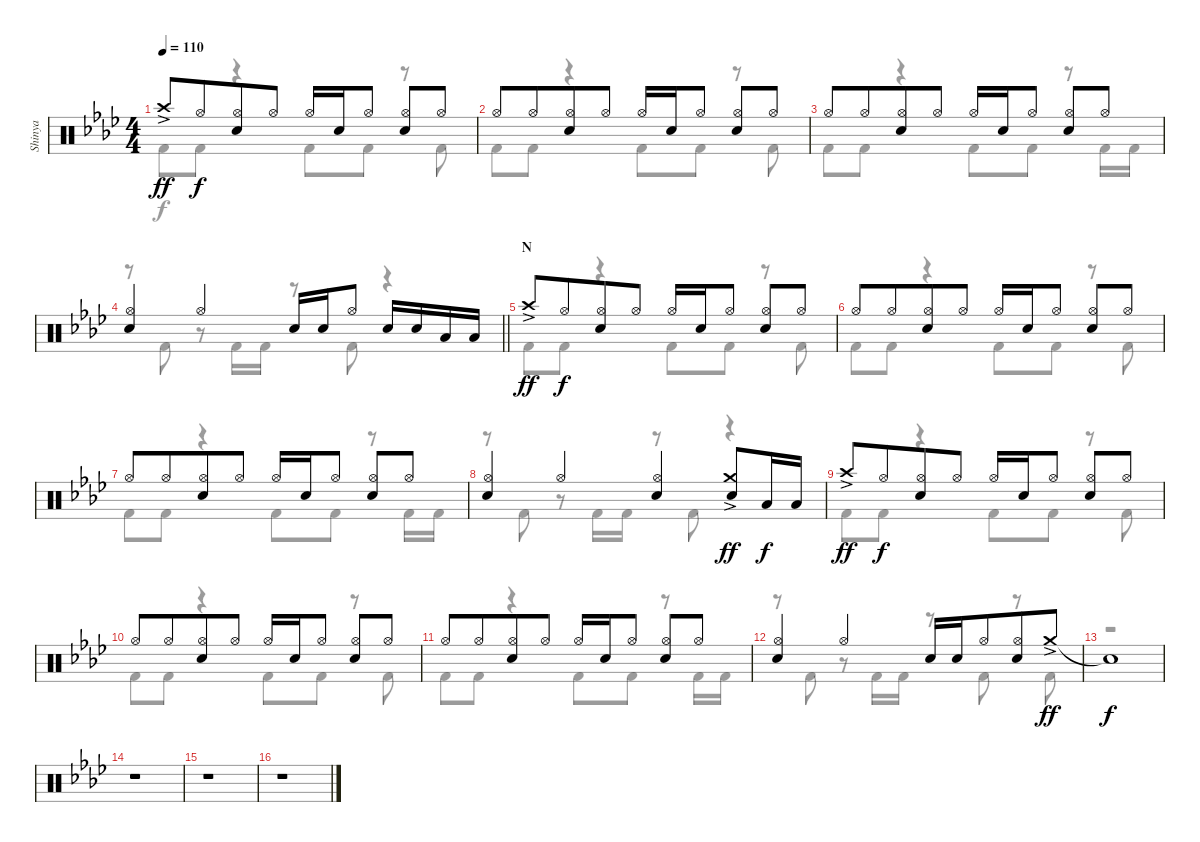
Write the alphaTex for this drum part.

\track ("Shinya" "Shinya") {instrument percussion}
\staff {score}
\articulation defaults
\voice
\ts (4 4)
\tempo 110
\clef neutral
\ks fminor "Crash high (hit)"{ac}.8{dy ff} "Hi-Hat (open)".8{dy f beam merge}
("Hi-Hat (open)" "Snare (hit) 2").8 "Hi-Hat (open)".8 "Hi-Hat (open)".16 "Snare (hit) 2".16 "Hi-Hat (open)".8 ("Hi-Hat (open)" "Snare (hit) 2").8 "Hi-Hat (open)".8 |
"Hi-Hat (open)".8 "Hi-Hat (open)".8{beam merge} ("Hi-Hat (open)" "Snare (hit) 2").8 "Hi-Hat (open)".8 "Hi-Hat (open)".16 "Snare (hit) 2".16 "Hi-Hat (open)".8 ("Hi-Hat (open)" "Snare (hit) 2").8 "Hi-Hat (open)".8 |
"Hi-Hat (open)".8 "Hi-Hat (open)".8{beam merge} ("Hi-Hat (open)" "Snare (hit) 2").8 "Hi-Hat (open)".8 "Hi-Hat (open)".16 "Snare (hit) 2".16 "Hi-Hat (open)".8 ("Hi-Hat (open)" "Snare (hit) 2").8 "Hi-Hat (open)".8 |
\barLineRight lightlight
("Hi-Hat (open)" "Snare (hit) 2").4 "Hi-Hat (open)".4 "Snare (hit) 2".16 "Snare (hit) 2".16 "Hi-Hat (open)".8 "Snare (hit) 2".16 "Snare (hit) 2".16 "Low Tom (hit)".16 "Low Tom (hit)".16 |
\section ("" "N")
"Crash high (hit)"{ac}.8{dy ff} "Hi-Hat (open)".8{dy f beam merge} ("Hi-Hat (open)" "Snare (hit) 2").8 "Hi-Hat (open)".8 "Hi-Hat (open)".16 "Snare (hit) 2".16 "Hi-Hat (open)".8 ("Hi-Hat (open)" "Snare (hit) 2").8 "Hi-Hat (open)".8 |
"Hi-Hat (open)".8 "Hi-Hat (open)".8{beam merge} ("Hi-Hat (open)" "Snare (hit) 2").8 "Hi-Hat (open)".8 "Hi-Hat (open)".16 "Snare (hit) 2".16 "Hi-Hat (open)".8 ("Hi-Hat (open)" "Snare (hit) 2").8 "Hi-Hat (open)".8 |
"Hi-Hat (open)".8 "Hi-Hat (open)".8{beam merge} ("Hi-Hat (open)" "Snare (hit) 2").8 "Hi-Hat (open)".8 "Hi-Hat (open)".16 "Snare (hit) 2".16 "Hi-Hat (open)".8 ("Hi-Hat (open)" "Snare (hit) 2").8 "Hi-Hat (open)".8 |
("Hi-Hat (open)" "Snare (hit) 2").4 "Hi-Hat (open)".4 ("Hi-Hat (open)" "Snare (hit) 2").4 ("Crash medium (hit)"{ac} "Snare (hit) 2").8{dy ff} "Low Tom (hit)".16{dy f} "Low Tom (hit)".16 |
"Crash high (hit)"{ac}.8{dy ff} "Hi-Hat (open)".8{dy f beam merge} ("Hi-Hat (open)" "Snare (hit) 2").8 "Hi-Hat (open)".8 "Hi-Hat (open)".16 "Snare (hit) 2".16 "Hi-Hat (open)".8 ("Hi-Hat (open)" "Snare (hit) 2").8 "Hi-Hat (open)".8 |
"Hi-Hat (open)".8 "Hi-Hat (open)".8{beam merge} ("Hi-Hat (open)" "Snare (hit) 2").8 "Hi-Hat (open)".8 "Hi-Hat (open)".16 "Snare (hit) 2".16 "Hi-Hat (open)".8 ("Hi-Hat (open)" "Snare (hit) 2").8 "Hi-Hat (open)".8 |
"Hi-Hat (open)".8 "Hi-Hat (open)".8{beam merge} ("Hi-Hat (open)" "Snare (hit) 2").8 "Hi-Hat (open)".8 "Hi-Hat (open)".16 "Snare (hit) 2".16 "Hi-Hat (open)".8 ("Hi-Hat (open)" "Snare (hit) 2").8 "Hi-Hat (open)".8 |
("Hi-Hat (open)" "Snare (hit) 2").4 "Hi-Hat (open)".4 "Snare (hit) 2".16 "Snare (hit) 2".16 "Hi-Hat (open)".8{beam merge} ("Hi-Hat (open)" "Snare (hit) 2").8 "Crash medium (hit)"{ac}.8{dy ff} |
"Snare (hit)"{t}.1{dy f} |
r.1 |
r.1 |
r.1
\voice
\clef neutral
\ottava regular
\simile none
\ks fminor "Kick (hit) 2".8{dy f} "Kick (hit) 2".8
r.4 "Kick (hit) 2".8 "Kick (hit) 2".8 r.8 "Kick (hit) 2".8 |
"Kick (hit) 2".8 "Kick (hit) 2".8 r.4 "Kick (hit) 2".8 "Kick (hit) 2".8 r.8 "Kick (hit) 2".8 |
"Kick (hit) 2".8 "Kick (hit) 2".8 r.4 "Kick (hit) 2".8 "Kick (hit) 2".8 r.8 "Kick (hit) 2".16 "Kick (hit) 2".16 |
\barLineRight lightlight
r.8 "Kick (hit) 2".8 r.8 "Kick (hit) 2".16 "Kick (hit) 2".16 r.8 "Kick (hit) 2".8 r.4 |
"Kick (hit) 2".8 "Kick (hit) 2".8 r.4 "Kick (hit) 2".8 "Kick (hit) 2".8 r.8 "Kick (hit) 2".8 |
"Kick (hit) 2".8 "Kick (hit) 2".8 r.4 "Kick (hit) 2".8 "Kick (hit) 2".8 r.8 "Kick (hit) 2".8 |
"Kick (hit) 2".8 "Kick (hit) 2".8 r.4 "Kick (hit) 2".8 "Kick (hit) 2".8 r.8 "Kick (hit) 2".16 "Kick (hit) 2".16 |
r.8 "Kick (hit) 2".8 r.8 "Kick (hit) 2".16 "Kick (hit) 2".16 r.8 "Kick (hit) 2".8 r.4 |
"Kick (hit) 2".8 "Kick (hit) 2".8 r.4 "Kick (hit) 2".8 "Kick (hit) 2".8 r.8 "Kick (hit) 2".8 |
"Kick (hit) 2".8 "Kick (hit) 2".8 r.4 "Kick (hit) 2".8 "Kick (hit) 2".8 r.8 "Kick (hit) 2".8 |
"Kick (hit) 2".8 "Kick (hit) 2".8 r.4 "Kick (hit) 2".8 "Kick (hit) 2".8 r.8 "Kick (hit) 2".16 "Kick (hit) 2".16 |
r.8 "Kick (hit) 2".8 r.8 "Kick (hit) 2".16 "Kick (hit) 2".16 r.8 "Kick (hit) 2".8 r.8 "Kick (hit) 2".8 |
r.1 |
r.1 |
r.1 |
r.1
